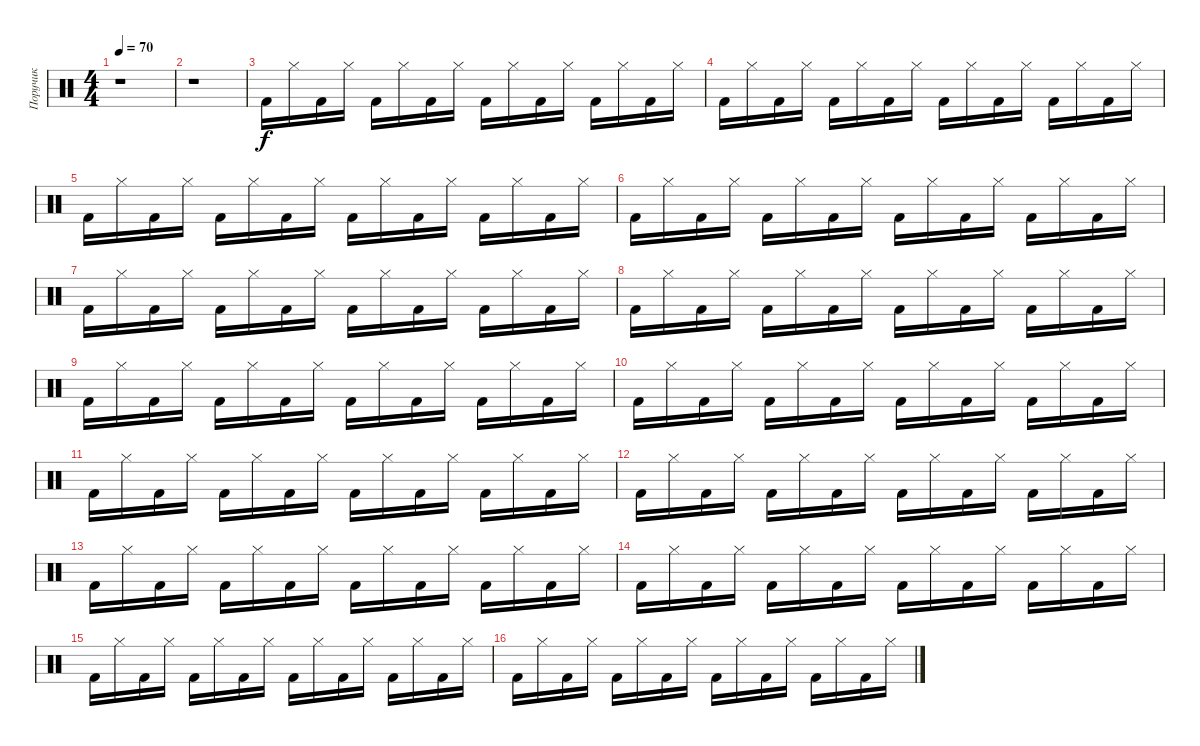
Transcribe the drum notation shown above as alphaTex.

\track ("Поручик" "Поручик") {instrument percussion}
\staff {score}
\articulation defaults
\ts (4 4)
\tempo 70
\clef neutral
\ks c
r.1{dy mf} |
r.1 |
"Kick (hit) 2".16{dy f} "Hi-Hat (closed)".16 "Kick (hit) 2".16 "Hi-Hat (closed)".16 "Kick (hit) 2".16 "Hi-Hat (closed)".16 "Kick (hit) 2".16 "Hi-Hat (closed)".16 "Kick (hit) 2".16 "Hi-Hat (closed)".16 "Kick (hit) 2".16 "Hi-Hat (closed)".16 "Kick (hit) 2".16 "Hi-Hat (closed)".16 "Kick (hit) 2".16 "Hi-Hat (closed)".16 |
"Kick (hit) 2".16 "Hi-Hat (closed)".16 "Kick (hit) 2".16 "Hi-Hat (closed)".16 "Kick (hit) 2".16 "Hi-Hat (closed)".16 "Kick (hit) 2".16 "Hi-Hat (closed)".16 "Kick (hit) 2".16 "Hi-Hat (closed)".16 "Kick (hit) 2".16 "Hi-Hat (closed)".16 "Kick (hit) 2".16 "Hi-Hat (closed)".16 "Kick (hit) 2".16 "Hi-Hat (closed)".16 |
"Kick (hit) 2".16 "Hi-Hat (closed)".16 "Kick (hit) 2".16 "Hi-Hat (closed)".16 "Kick (hit) 2".16 "Hi-Hat (closed)".16 "Kick (hit) 2".16 "Hi-Hat (closed)".16 "Kick (hit) 2".16 "Hi-Hat (closed)".16 "Kick (hit) 2".16 "Hi-Hat (closed)".16 "Kick (hit) 2".16 "Hi-Hat (closed)".16 "Kick (hit) 2".16 "Hi-Hat (closed)".16 |
"Kick (hit) 2".16 "Hi-Hat (closed)".16 "Kick (hit) 2".16 "Hi-Hat (closed)".16 "Kick (hit) 2".16 "Hi-Hat (closed)".16 "Kick (hit) 2".16 "Hi-Hat (closed)".16 "Kick (hit) 2".16 "Hi-Hat (closed)".16 "Kick (hit) 2".16 "Hi-Hat (closed)".16 "Kick (hit) 2".16 "Hi-Hat (closed)".16 "Kick (hit) 2".16 "Hi-Hat (closed)".16 |
"Kick (hit) 2".16 "Hi-Hat (closed)".16 "Kick (hit) 2".16 "Hi-Hat (closed)".16 "Kick (hit) 2".16 "Hi-Hat (closed)".16 "Kick (hit) 2".16 "Hi-Hat (closed)".16 "Kick (hit) 2".16 "Hi-Hat (closed)".16 "Kick (hit) 2".16 "Hi-Hat (closed)".16 "Kick (hit) 2".16 "Hi-Hat (closed)".16 "Kick (hit) 2".16 "Hi-Hat (closed)".16 |
"Kick (hit) 2".16 "Hi-Hat (closed)".16 "Kick (hit) 2".16 "Hi-Hat (closed)".16 "Kick (hit) 2".16 "Hi-Hat (closed)".16 "Kick (hit) 2".16 "Hi-Hat (closed)".16 "Kick (hit) 2".16 "Hi-Hat (closed)".16 "Kick (hit) 2".16 "Hi-Hat (closed)".16 "Kick (hit) 2".16 "Hi-Hat (closed)".16 "Kick (hit) 2".16 "Hi-Hat (closed)".16 |
"Kick (hit) 2".16 "Hi-Hat (closed)".16 "Kick (hit) 2".16 "Hi-Hat (closed)".16 "Kick (hit) 2".16 "Hi-Hat (closed)".16 "Kick (hit) 2".16 "Hi-Hat (closed)".16 "Kick (hit) 2".16 "Hi-Hat (closed)".16 "Kick (hit) 2".16 "Hi-Hat (closed)".16 "Kick (hit) 2".16 "Hi-Hat (closed)".16 "Kick (hit) 2".16 "Hi-Hat (closed)".16 |
"Kick (hit) 2".16 "Hi-Hat (closed)".16 "Kick (hit) 2".16 "Hi-Hat (closed)".16 "Kick (hit) 2".16 "Hi-Hat (closed)".16 "Kick (hit) 2".16 "Hi-Hat (closed)".16 "Kick (hit) 2".16 "Hi-Hat (closed)".16 "Kick (hit) 2".16 "Hi-Hat (closed)".16 "Kick (hit) 2".16 "Hi-Hat (closed)".16 "Kick (hit) 2".16 "Hi-Hat (closed)".16 |
"Kick (hit) 2".16 "Hi-Hat (closed)".16 "Kick (hit) 2".16 "Hi-Hat (closed)".16 "Kick (hit) 2".16 "Hi-Hat (closed)".16 "Kick (hit) 2".16 "Hi-Hat (closed)".16 "Kick (hit) 2".16 "Hi-Hat (closed)".16 "Kick (hit) 2".16 "Hi-Hat (closed)".16 "Kick (hit) 2".16 "Hi-Hat (closed)".16 "Kick (hit) 2".16 "Hi-Hat (closed)".16 |
"Kick (hit) 2".16 "Hi-Hat (closed)".16 "Kick (hit) 2".16 "Hi-Hat (closed)".16 "Kick (hit) 2".16 "Hi-Hat (closed)".16 "Kick (hit) 2".16 "Hi-Hat (closed)".16 "Kick (hit) 2".16 "Hi-Hat (closed)".16 "Kick (hit) 2".16 "Hi-Hat (closed)".16 "Kick (hit) 2".16 "Hi-Hat (closed)".16 "Kick (hit) 2".16 "Hi-Hat (closed)".16 |
"Kick (hit) 2".16 "Hi-Hat (closed)".16 "Kick (hit) 2".16 "Hi-Hat (closed)".16 "Kick (hit) 2".16 "Hi-Hat (closed)".16 "Kick (hit) 2".16 "Hi-Hat (closed)".16 "Kick (hit) 2".16 "Hi-Hat (closed)".16 "Kick (hit) 2".16 "Hi-Hat (closed)".16 "Kick (hit) 2".16 "Hi-Hat (closed)".16 "Kick (hit) 2".16 "Hi-Hat (closed)".16 |
"Kick (hit) 2".16 "Hi-Hat (closed)".16 "Kick (hit) 2".16 "Hi-Hat (closed)".16 "Kick (hit) 2".16 "Hi-Hat (closed)".16 "Kick (hit) 2".16 "Hi-Hat (closed)".16 "Kick (hit) 2".16 "Hi-Hat (closed)".16 "Kick (hit) 2".16 "Hi-Hat (closed)".16 "Kick (hit) 2".16 "Hi-Hat (closed)".16 "Kick (hit) 2".16 "Hi-Hat (closed)".16 |
"Kick (hit) 2".16 "Hi-Hat (closed)".16 "Kick (hit) 2".16 "Hi-Hat (closed)".16 "Kick (hit) 2".16 "Hi-Hat (closed)".16 "Kick (hit) 2".16 "Hi-Hat (closed)".16 "Kick (hit) 2".16 "Hi-Hat (closed)".16 "Kick (hit) 2".16 "Hi-Hat (closed)".16 "Kick (hit) 2".16 "Hi-Hat (closed)".16 "Kick (hit) 2".16 "Hi-Hat (closed)".16 |
"Kick (hit) 2".16 "Hi-Hat (closed)".16 "Kick (hit) 2".16 "Hi-Hat (closed)".16 "Kick (hit) 2".16 "Hi-Hat (closed)".16 "Kick (hit) 2".16 "Hi-Hat (closed)".16 "Kick (hit) 2".16 "Hi-Hat (closed)".16 "Kick (hit) 2".16 "Hi-Hat (closed)".16 "Kick (hit) 2".16 "Hi-Hat (closed)".16 "Kick (hit) 2".16 "Hi-Hat (closed)".16
